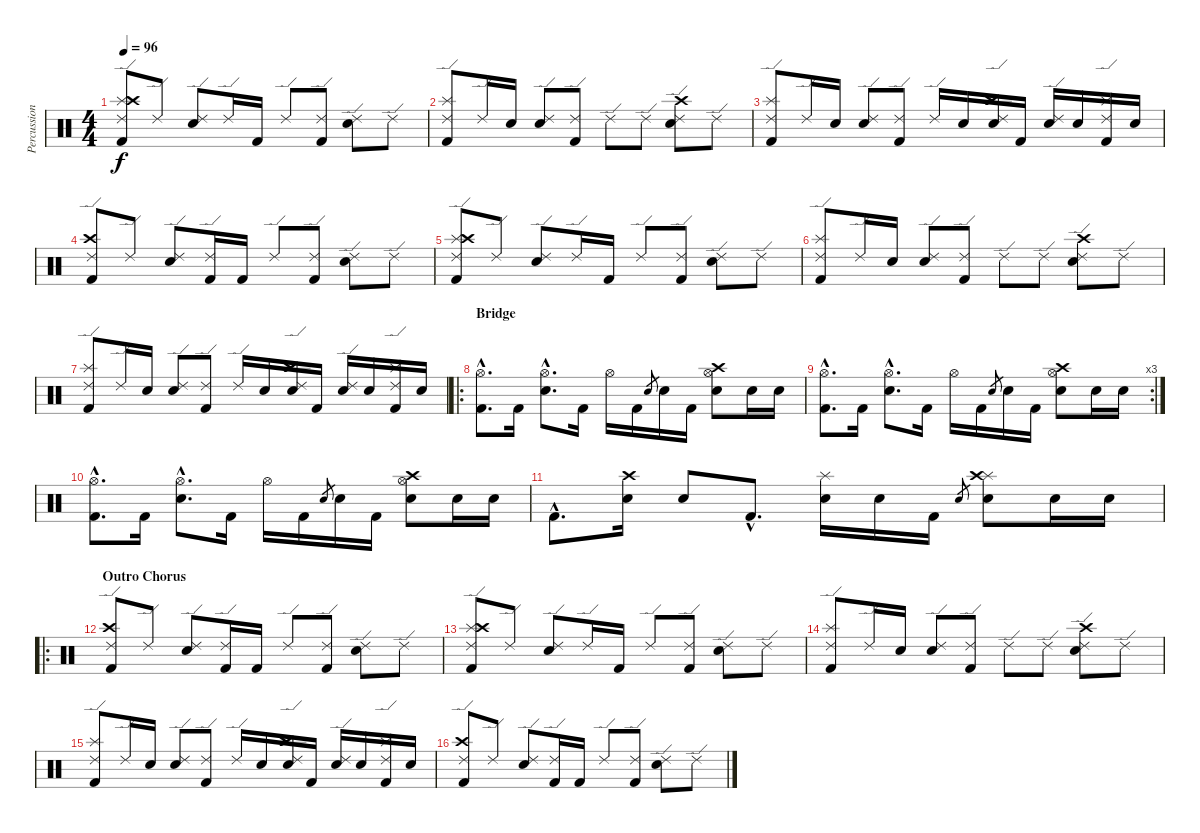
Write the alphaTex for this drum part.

\track ("Percussion" "Percussion") {instrument percussion}
\staff {score}
\articulation defaults
\ts (4 4)
\tempo 96
\clef neutral
\ks c
("Ride (edge) 2" "Splash (hit)" "Crash high (hit)" "Kick (hit) 2").8{dy f} "Ride (edge) 2".8 ("Ride (edge) 2" "Electric Snare (hit)").8 "Ride (edge) 2".16 "Kick (hit) 2".16 "Ride (edge) 2".8 ("Ride (edge) 2" "Kick (hit) 2").8 ("Ride (edge) 2" "Electric Snare (hit)").8 "Ride (edge) 2".8 |
("Ride (edge) 2" "Splash (hit)" "Kick (hit) 2").8 "Ride (edge) 2".16 "Electric Snare (hit)".16 ("Ride (edge) 2" "Electric Snare (hit)").8 ("Ride (edge) 2" "Kick (hit) 2").8 "Ride (edge) 2".8 "Ride (edge) 2".8 ("Ride (edge) 2" "Crash high (hit)" "Electric Snare (hit)").8 "Ride (edge) 2".8 |
("Ride (edge) 2" "Splash (hit)" "Kick (hit) 2").8 "Ride (edge) 2".16 "Electric Snare (hit)".16 ("Ride (edge) 2" "Electric Snare (hit)").8 ("Ride (edge) 2" "Kick (hit) 2").8 "Ride (edge) 2".16 "Electric Snare (hit)".16 ("Ride (edge) 2" "Crash high (hit)" "Electric Snare (hit)").16 "Kick (hit) 2".16 ("Ride (edge) 2" "Electric Snare (hit)").16 "Electric Snare (hit)".16 ("Ride (edge) 2" "Splash (hit)" "Kick (hit) 2").16 "Electric Snare (hit)".16 |
("Ride (edge) 2" "Crash high (hit)" "Kick (hit) 2").8 "Ride (edge) 2".8 ("Ride (edge) 2" "Electric Snare (hit)").8 ("Ride (edge) 2" "Kick (hit) 2").16 "Kick (hit) 2".16 "Ride (edge) 2".8 ("Ride (edge) 2" "Kick (hit) 2").8 ("Ride (edge) 2" "Electric Snare (hit)").8 "Ride (edge) 2".8 |
("Ride (edge) 2" "Splash (hit)" "Crash high (hit)" "Kick (hit) 2").8 "Ride (edge) 2".8 ("Ride (edge) 2" "Electric Snare (hit)").8 "Ride (edge) 2".16 "Kick (hit) 2".16 "Ride (edge) 2".8 ("Ride (edge) 2" "Kick (hit) 2").8 ("Ride (edge) 2" "Electric Snare (hit)").8 "Ride (edge) 2".8 |
("Ride (edge) 2" "Splash (hit)" "Kick (hit) 2").8 "Ride (edge) 2".16 "Electric Snare (hit)".16 ("Ride (edge) 2" "Electric Snare (hit)").8 ("Ride (edge) 2" "Kick (hit) 2").8 "Ride (edge) 2".8 "Ride (edge) 2".8 ("Ride (edge) 2" "Crash high (hit)" "Electric Snare (hit)").8 "Ride (edge) 2".8 |
("Ride (edge) 2" "Splash (hit)" "Kick (hit) 2").8 "Ride (edge) 2".16 "Electric Snare (hit)".16 ("Ride (edge) 2" "Electric Snare (hit)").8 ("Ride (edge) 2" "Kick (hit) 2").8 "Ride (edge) 2".16 "Electric Snare (hit)".16 ("Ride (edge) 2" "Crash high (hit)" "Electric Snare (hit)").16 "Kick (hit) 2".16 ("Ride (edge) 2" "Electric Snare (hit)").16 "Electric Snare (hit)".16 ("Ride (edge) 2" "Splash (hit)" "Kick (hit) 2").16 "Electric Snare (hit)".16 |
\ro
\section ("" "Bridge")
("Hi-Hat (open)"{hac} "Kick (hit) 2"{hac}).8{d} "Kick (hit) 2".16 ("Hi-Hat (open)"{hac} "Electric Snare (hit)"{hac}).8{d} "Kick (hit) 2".16 "Hi-Hat (open)".16 "Kick (hit) 2".16 "Electric Snare (hit)".8{gr} "Electric Snare (hit)".16 "Kick (hit) 2".16 ("Hi-Hat (open)" "Crash high (hit)" "Electric Snare (hit)").8 "Electric Snare (hit)".16 "Electric Snare (hit)".16 |
\rc 3
("Hi-Hat (open)"{hac} "Kick (hit) 2"{hac}).8{d} "Kick (hit) 2".16 ("Hi-Hat (open)"{hac} "Electric Snare (hit)"{hac}).8{d} "Kick (hit) 2".16 "Hi-Hat (open)".16 "Kick (hit) 2".16 "Electric Snare (hit)".8{gr} "Electric Snare (hit)".16 "Kick (hit) 2".16 ("Hi-Hat (open)" "Crash high (hit)" "Electric Snare (hit)").8 "Electric Snare (hit)".16 "Electric Snare (hit)".16 |
("Hi-Hat (open)"{hac} "Kick (hit) 2"{hac}).8{d} "Kick (hit) 2".16 ("Hi-Hat (open)"{hac} "Electric Snare (hit)"{hac}).8{d} "Kick (hit) 2".16 "Hi-Hat (open)".16 "Kick (hit) 2".16 "Electric Snare (hit)".8{gr} "Electric Snare (hit)".16 "Kick (hit) 2".16 ("Hi-Hat (open)" "Crash high (hit)" "Electric Snare (hit)").8 "Electric Snare (hit)".16 "Electric Snare (hit)".16 |
"Kick (hit) 2"{hac}.8{d} ("Crash high (hit)" "Electric Snare (hit)").16 "Electric Snare (hit)".8 "Kick (hit) 2"{hac}.8{d} ("Splash (hit)" "Electric Snare (hit)").16 "Electric Snare (hit)".16 "Kick (hit) 2".16 "Electric Snare (hit)"{sl}.8{gr} ("Splash (hit)" "Crash high (hit)" "Electric Snare (hit)").8 "Electric Snare (hit)".16 "Electric Snare (hit)".16 |
\ro
\section ("" "Outro Chorus")
("Ride (edge) 2" "Crash high (hit)" "Kick (hit) 2").8 "Ride (edge) 2".8 ("Ride (edge) 2" "Electric Snare (hit)").8 ("Ride (edge) 2" "Kick (hit) 2").16 "Kick (hit) 2".16 "Ride (edge) 2".8 ("Ride (edge) 2" "Kick (hit) 2").8 ("Ride (edge) 2" "Electric Snare (hit)").8 "Ride (edge) 2".8 |
("Ride (edge) 2" "Splash (hit)" "Crash high (hit)" "Kick (hit) 2").8 "Ride (edge) 2".8 ("Ride (edge) 2" "Electric Snare (hit)").8 "Ride (edge) 2".16 "Kick (hit) 2".16 "Ride (edge) 2".8 ("Ride (edge) 2" "Kick (hit) 2").8 ("Ride (edge) 2" "Electric Snare (hit)").8 "Ride (edge) 2".8 |
("Ride (edge) 2" "Splash (hit)" "Kick (hit) 2").8 "Ride (edge) 2".16 "Electric Snare (hit)".16 ("Ride (edge) 2" "Electric Snare (hit)").8 ("Ride (edge) 2" "Kick (hit) 2").8 "Ride (edge) 2".8 "Ride (edge) 2".8 ("Ride (edge) 2" "Crash high (hit)" "Electric Snare (hit)").8 "Ride (edge) 2".8 |
("Ride (edge) 2" "Splash (hit)" "Kick (hit) 2").8 "Ride (edge) 2".16 "Electric Snare (hit)".16 ("Ride (edge) 2" "Electric Snare (hit)").8 ("Ride (edge) 2" "Kick (hit) 2").8 "Ride (edge) 2".16 "Electric Snare (hit)".16 ("Ride (edge) 2" "Crash high (hit)" "Electric Snare (hit)").16 "Kick (hit) 2".16 ("Ride (edge) 2" "Electric Snare (hit)").16 "Electric Snare (hit)".16 ("Ride (edge) 2" "Splash (hit)" "Kick (hit) 2").16 "Electric Snare (hit)".16 |
("Ride (edge) 2" "Crash high (hit)" "Kick (hit) 2").8 "Ride (edge) 2".8 ("Ride (edge) 2" "Electric Snare (hit)").8 ("Ride (edge) 2" "Kick (hit) 2").16 "Kick (hit) 2".16 "Ride (edge) 2".8 ("Ride (edge) 2" "Kick (hit) 2").8 ("Ride (edge) 2" "Electric Snare (hit)").8 "Ride (edge) 2".8
